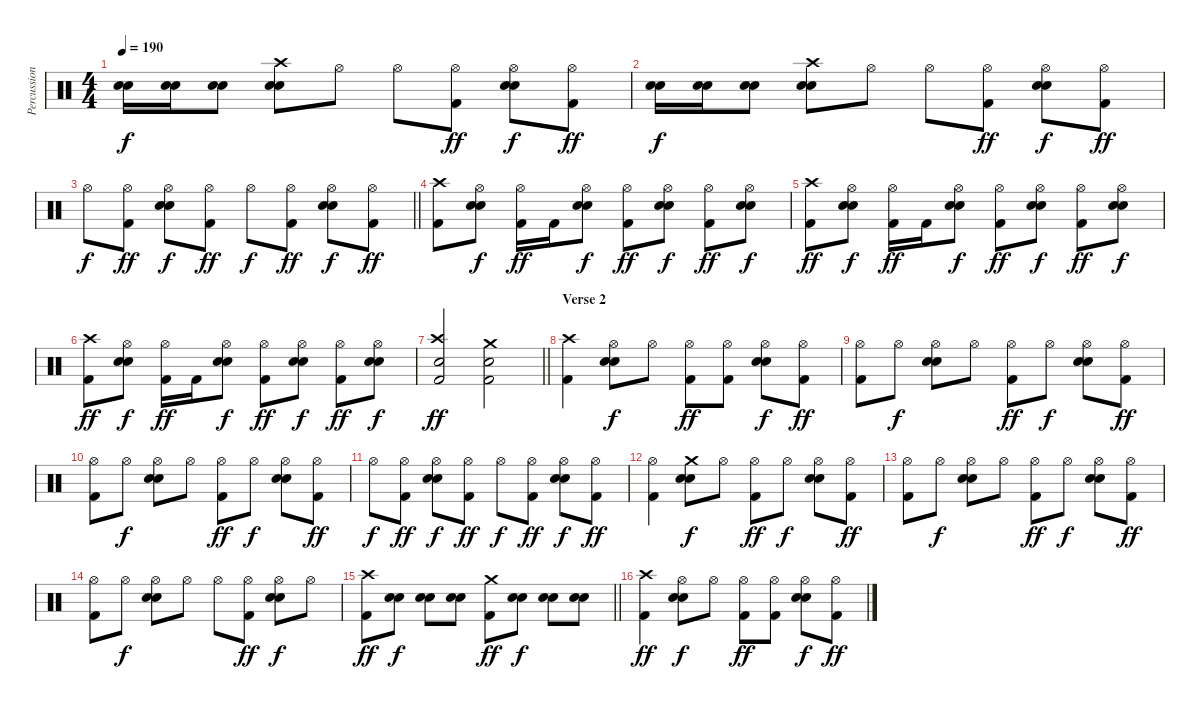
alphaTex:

\track ("Percussion" "Percussion") {instrument percussion}
\staff {score}
\articulation defaults
\ts (4 4)
\tempo 190
\clef neutral
\ks c
("Electric Snare (hit)" "Snare (hit) 2").16{dy f} ("Electric Snare (hit)" "Snare (hit) 2").16 ("Electric Snare (hit)" "Snare (hit) 2").8 ("Crash high (hit)" "Electric Snare (hit)" "Snare (hit) 2").8 "Hi-Hat (open)".8 "Hi-Hat (open)".8 ("Hi-Hat (open)" "Kick (hit) 2").8{dy ff} ("Hi-Hat (open)" "Electric Snare (hit)" "Snare (hit) 2").8{dy f} ("Hi-Hat (open)" "Kick (hit) 2").8{dy ff} |
("Electric Snare (hit)" "Snare (hit) 2").16{dy f} ("Electric Snare (hit)" "Snare (hit) 2").16 ("Electric Snare (hit)" "Snare (hit) 2").8 ("Crash high (hit)" "Electric Snare (hit)" "Snare (hit) 2").8 "Hi-Hat (open)".8 "Hi-Hat (open)".8 ("Hi-Hat (open)" "Kick (hit) 2").8{dy ff} ("Hi-Hat (open)" "Electric Snare (hit)" "Snare (hit) 2").8{dy f} ("Hi-Hat (open)" "Kick (hit) 2").8{dy ff} |
\barLineRight lightlight "Hi-Hat (open)".8{dy f}
("Hi-Hat (open)" "Kick (hit) 2").8{dy ff} ("Hi-Hat (open)" "Electric Snare (hit)" "Snare (hit) 2").8{dy f} ("Hi-Hat (open)" "Kick (hit) 2").8{dy ff} "Hi-Hat (open)".8{dy f} ("Hi-Hat (open)" "Kick (hit) 2").8{dy ff} ("Hi-Hat (open)" "Electric Snare (hit)" "Snare (hit) 2").8{dy f} ("Hi-Hat (open)" "Kick (hit) 2").8{dy ff} |
\section ("" "")
("Crash high (hit)" "Kick (hit) 2").8 ("Hi-Hat (open)" "Electric Snare (hit)" "Snare (hit) 2").8{dy f} ("Hi-Hat (open)" "Kick (hit) 2").16{dy ff} "Kick (hit) 2".16 ("Hi-Hat (open)" "Electric Snare (hit)" "Snare (hit) 2").8{dy f} ("Hi-Hat (open)" "Kick (hit) 2").8{dy ff} ("Hi-Hat (open)" "Electric Snare (hit)" "Snare (hit) 2").8{dy f} ("Hi-Hat (open)" "Kick (hit) 2").8{dy ff} ("Hi-Hat (open)" "Electric Snare (hit)" "Snare (hit) 2").8{dy f} |
("Crash high (hit)" "Kick (hit) 2").8{dy ff} ("Hi-Hat (open)" "Electric Snare (hit)" "Snare (hit) 2").8{dy f} ("Hi-Hat (open)" "Kick (hit) 2").16{dy ff} "Kick (hit) 2".16 ("Hi-Hat (open)" "Electric Snare (hit)" "Snare (hit) 2").8{dy f} ("Hi-Hat (open)" "Kick (hit) 2").8{dy ff} ("Hi-Hat (open)" "Electric Snare (hit)" "Snare (hit) 2").8{dy f} ("Hi-Hat (open)" "Kick (hit) 2").8{dy ff} ("Hi-Hat (open)" "Electric Snare (hit)" "Snare (hit) 2").8{dy f} |
("Crash high (hit)" "Kick (hit) 2").8{dy ff} ("Hi-Hat (open)" "Electric Snare (hit)" "Snare (hit) 2").8{dy f} ("Hi-Hat (open)" "Kick (hit) 2").16{dy ff} "Kick (hit) 2".16 ("Hi-Hat (open)" "Electric Snare (hit)" "Snare (hit) 2").8{dy f} ("Hi-Hat (open)" "Kick (hit) 2").8{dy ff} ("Hi-Hat (open)" "Electric Snare (hit)" "Snare (hit) 2").8{dy f} ("Hi-Hat (open)" "Kick (hit) 2").8{dy ff} ("Hi-Hat (open)" "Electric Snare (hit)" "Snare (hit) 2").8{dy f} |
\barLineRight lightlight
("Crash high (hit)" "Snare (hit) 2" "Kick (hit) 2").2{dy ff} ("Crash medium (hit)" "Snare (hit) 2" "Kick (hit) 2").2 |
\section ("" "Verse 2")
("Crash high (hit)" "Kick (hit) 2").4 ("Hi-Hat (open)" "Electric Snare (hit)" "Snare (hit) 2").8{dy f} "Hi-Hat (open)".8 ("Hi-Hat (open)" "Kick (hit) 2").8{dy ff} ("Hi-Hat (open)" "Kick (hit) 2").8 ("Hi-Hat (open)" "Electric Snare (hit)" "Snare (hit) 2").8{dy f} ("Hi-Hat (open)" "Kick (hit) 2").8{dy ff} |
("Hi-Hat (open)" "Kick (hit) 2").8 "Hi-Hat (open)".8{dy f} ("Hi-Hat (open)" "Electric Snare (hit)" "Snare (hit) 2").8 "Hi-Hat (open)".8 ("Hi-Hat (open)" "Kick (hit) 2").8{dy ff} "Hi-Hat (open)".8{dy f} ("Hi-Hat (open)" "Electric Snare (hit)" "Snare (hit) 2").8 ("Hi-Hat (open)" "Kick (hit) 2").8{dy ff} |
("Hi-Hat (open)" "Kick (hit) 2").8 "Hi-Hat (open)".8{dy f} ("Hi-Hat (open)" "Electric Snare (hit)" "Snare (hit) 2").8 "Hi-Hat (open)".8 ("Hi-Hat (open)" "Kick (hit) 2").8{dy ff} "Hi-Hat (open)".8{dy f} ("Hi-Hat (open)" "Electric Snare (hit)" "Snare (hit) 2").8 ("Hi-Hat (open)" "Kick (hit) 2").8{dy ff} |
"Hi-Hat (open)".8{dy f} ("Hi-Hat (open)" "Kick (hit) 2").8{dy ff} ("Hi-Hat (open)" "Electric Snare (hit)" "Snare (hit) 2").8{dy f} ("Hi-Hat (open)" "Kick (hit) 2").8{dy ff} "Hi-Hat (open)".8{dy f} ("Hi-Hat (open)" "Kick (hit) 2").8{dy ff} ("Hi-Hat (open)" "Electric Snare (hit)" "Snare (hit) 2").8{dy f} ("Hi-Hat (open)" "Kick (hit) 2").8{dy ff} |
("Hi-Hat (open)" "Kick (hit) 2").4 ("Crash medium (hit)" "Electric Snare (hit)" "Snare (hit) 2").8{dy f} "Hi-Hat (open)".8 ("Hi-Hat (open)" "Kick (hit) 2").8{dy ff} "Hi-Hat (open)".8{dy f} ("Hi-Hat (open)" "Electric Snare (hit)" "Snare (hit) 2").8 ("Hi-Hat (open)" "Kick (hit) 2").8{dy ff} |
("Hi-Hat (open)" "Kick (hit) 2").8 "Hi-Hat (open)".8{dy f} ("Hi-Hat (open)" "Electric Snare (hit)" "Snare (hit) 2").8 "Hi-Hat (open)".8 ("Hi-Hat (open)" "Kick (hit) 2").8{dy ff} "Hi-Hat (open)".8{dy f} ("Hi-Hat (open)" "Electric Snare (hit)" "Snare (hit) 2").8 ("Hi-Hat (open)" "Kick (hit) 2").8{dy ff} |
("Hi-Hat (open)" "Kick (hit) 2").8 "Hi-Hat (open)".8{dy f} ("Hi-Hat (open)" "Electric Snare (hit)" "Snare (hit) 2").8 "Hi-Hat (open)".8 "Hi-Hat (open)".8 ("Hi-Hat (open)" "Kick (hit) 2").8{dy ff} ("Hi-Hat (open)" "Electric Snare (hit)" "Snare (hit) 2").8{dy f} "Hi-Hat (open)".8 |
\barLineRight lightlight
("Crash high (hit)" "Kick (hit) 2").8{dy ff} ("Electric Snare (hit)" "Snare (hit) 2").8{dy f} ("Electric Snare (hit)" "Snare (hit) 2").8 ("Electric Snare (hit)" "Snare (hit) 2").8 ("Crash medium (hit)" "Kick (hit) 2").8{dy ff} ("Electric Snare (hit)" "Snare (hit) 2").8{dy f} ("Electric Snare (hit)" "Snare (hit) 2").8 ("Electric Snare (hit)" "Snare (hit) 2").8 |
("Crash high (hit)" "Kick (hit) 2").4{dy ff} ("Hi-Hat (open)" "Electric Snare (hit)" "Snare (hit) 2").8{dy f} "Hi-Hat (open)".8 ("Hi-Hat (open)" "Kick (hit) 2").8{dy ff} ("Hi-Hat (open)" "Kick (hit) 2").8 ("Hi-Hat (open)" "Electric Snare (hit)" "Snare (hit) 2").8{dy f} ("Hi-Hat (open)" "Kick (hit) 2").8{dy ff}
